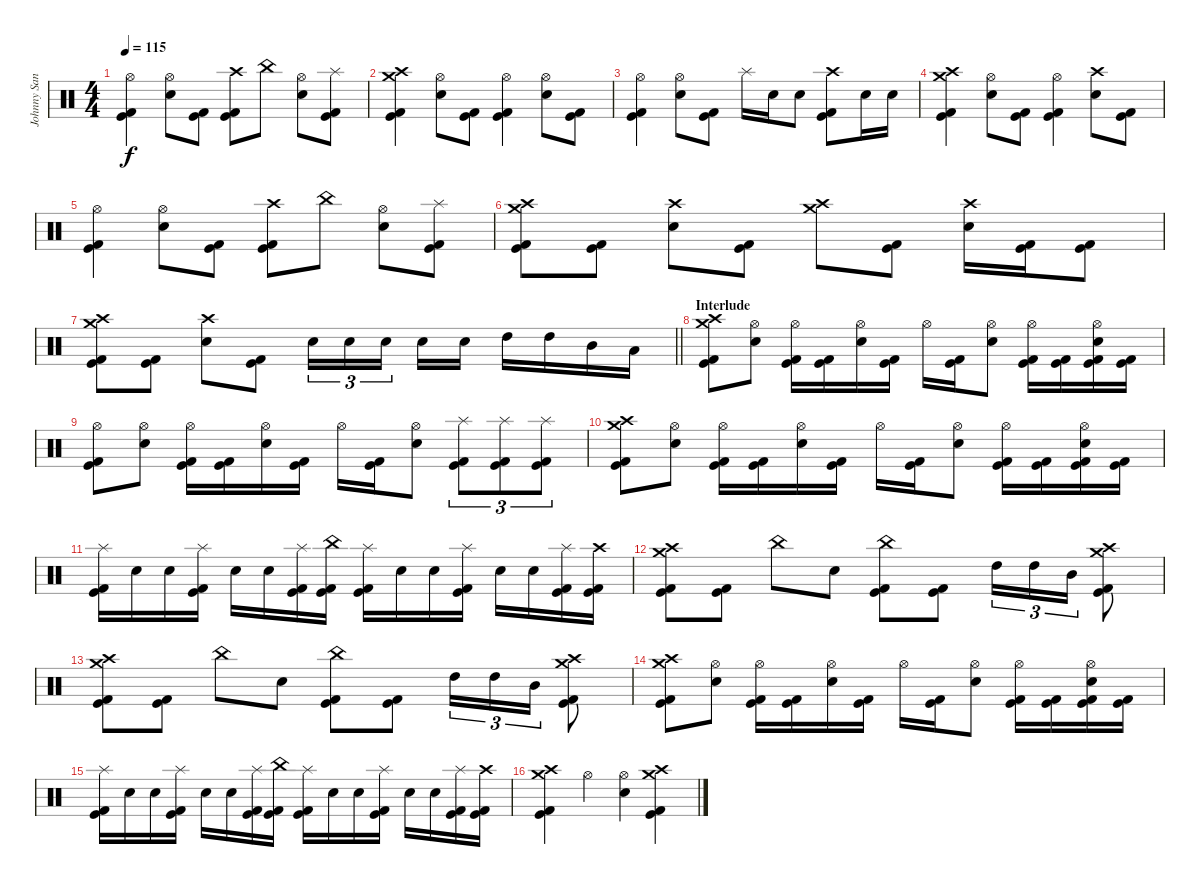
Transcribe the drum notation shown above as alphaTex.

\track ("Johnny Sandin" "Johnny San") {instrument percussion}
\staff {score}
\articulation defaults
\ts (4 4)
\tempo 115
\clef neutral
\ks c
("Hi-Hat (open)" "Kick (hit) 2" "Kick (hit)").4{dy f} ("Hi-Hat (open)" "Snare (hit) 2").8 ("Kick (hit) 2" "Kick (hit)").8 ("Crash high (hit)" "Kick (hit) 2" "Kick (hit)").8 "China (hit)".8 ("Hi-Hat (open)" "Snare (hit) 2").8 ("Splash (hit)" "Kick (hit) 2" "Kick (hit)").8 |
("Crash medium (hit)" "Crash high (hit)" "Kick (hit) 2" "Kick (hit)").4 ("Hi-Hat (open)" "Snare (hit) 2").8 ("Kick (hit) 2" "Kick (hit)").8 ("Hi-Hat (open)" "Kick (hit) 2" "Kick (hit)").4 ("Hi-Hat (open)" "Snare (hit) 2").8 ("Kick (hit) 2" "Kick (hit)").8 |
("Hi-Hat (open)" "Kick (hit) 2" "Kick (hit)").4 ("Hi-Hat (open)" "Snare (hit) 2").8 ("Kick (hit) 2" "Kick (hit)").8 "Splash (hit)".16 "Snare (hit) 2".16 "Snare (hit) 2".8 ("Crash high (hit)" "Kick (hit) 2" "Kick (hit)").8 "Snare (hit) 2".16 "Snare (hit) 2".16 |
("Crash medium (hit)" "Crash high (hit)" "Kick (hit) 2" "Kick (hit)").4 ("Hi-Hat (open)" "Snare (hit) 2").8 ("Kick (hit) 2" "Kick (hit)").8 ("Hi-Hat (open)" "Kick (hit) 2" "Kick (hit)").4 ("Crash high (hit)" "Snare (hit) 2").8 ("Kick (hit) 2" "Kick (hit)").8 |
("Hi-Hat (open)" "Kick (hit) 2" "Kick (hit)").4 ("Hi-Hat (open)" "Snare (hit) 2").8 ("Kick (hit) 2" "Kick (hit)").8 ("Crash high (hit)" "Kick (hit) 2" "Kick (hit)").8 "China (hit)".8 ("Hi-Hat (open)" "Snare (hit) 2").8 ("Splash (hit)" "Kick (hit) 2" "Kick (hit)").8 |
("Crash medium (hit)" "Crash high (hit)" "Kick (hit) 2" "Kick (hit)").8 ("Kick (hit) 2" "Kick (hit)").8 ("Crash high (hit)" "Snare (hit) 2").8 ("Kick (hit) 2" "Kick (hit)").8 ("Crash medium (hit)" "Crash high (hit)").8 ("Kick (hit) 2" "Kick (hit)").8 ("Crash high (hit)" "Snare (hit) 2").16 ("Kick (hit)" "Kick (hit) 2").16 ("Kick (hit)" "Kick (hit) 2").8 |
\barLineRight lightlight
("Crash medium (hit)" "Crash high (hit)" "Kick (hit) 2" "Kick (hit)").8 ("Kick (hit) 2" "Kick (hit)").8 ("Crash high (hit)" "Snare (hit) 2").8 ("Kick (hit) 2" "Kick (hit)").8 "Snare (hit) 2".16{tu (3 2)} "Snare (hit) 2".16{tu (3 2)} "Snare (hit) 2".16{tu (3 2)} "Snare (hit) 2".16 "Snare (hit) 2".16 "High Tom (hit)".16 "High Tom (hit)".16 "Mid Tom (hit)".16 "Low Tom (hit)".16 |
\section ("" "Interlude")
("Crash medium (hit)" "Crash high (hit)" "Kick (hit) 2" "Kick (hit)").8 ("Hi-Hat (open)" "Snare (hit) 2").8 ("Hi-Hat (open)" "Kick (hit) 2" "Kick (hit)").16 ("Kick (hit) 2" "Kick (hit)").16 ("Hi-Hat (open)" "Snare (hit) 2").16 ("Kick (hit) 2" "Kick (hit)").16 "Hi-Hat (open)".16 ("Kick (hit) 2" "Kick (hit)").16 ("Hi-Hat (open)" "Snare (hit) 2").8 ("Hi-Hat (open)" "Kick (hit) 2" "Kick (hit)").16 ("Kick (hit) 2" "Kick (hit)").16 ("Hi-Hat (open)" "Snare (hit) 2" "Kick (hit) 2" "Kick (hit)").16 ("Kick (hit) 2" "Kick (hit)").16 |
("Hi-Hat (open)" "Kick (hit) 2" "Kick (hit)").8 ("Hi-Hat (open)" "Snare (hit) 2").8 ("Hi-Hat (open)" "Kick (hit) 2" "Kick (hit)").16 ("Kick (hit) 2" "Kick (hit)").16 ("Hi-Hat (open)" "Snare (hit) 2").16 ("Kick (hit) 2" "Kick (hit)").16 "Hi-Hat (open)".16 ("Kick (hit) 2" "Kick (hit)").16 ("Hi-Hat (open)" "Snare (hit) 2").8 ("Splash (hit)" "Kick (hit) 2" "Kick (hit)").8{tu (3 2)} ("Splash (hit)" "Kick (hit) 2" "Kick (hit)").8{tu (3 2)} ("Splash (hit)" "Kick (hit) 2" "Kick (hit)").8{tu (3 2)} |
("Crash medium (hit)" "Crash high (hit)" "Kick (hit) 2" "Kick (hit)").8 ("Hi-Hat (open)" "Snare (hit) 2").8 ("Hi-Hat (open)" "Kick (hit) 2" "Kick (hit)").16 ("Kick (hit) 2" "Kick (hit)").16 ("Hi-Hat (open)" "Snare (hit) 2").16 ("Kick (hit) 2" "Kick (hit)").16 "Hi-Hat (open)".16 ("Kick (hit) 2" "Kick (hit)").16 ("Hi-Hat (open)" "Snare (hit) 2").8 ("Hi-Hat (open)" "Kick (hit) 2" "Kick (hit)").16 ("Kick (hit) 2" "Kick (hit)").16 ("Hi-Hat (open)" "Snare (hit) 2" "Kick (hit) 2" "Kick (hit)").16 ("Kick (hit) 2" "Kick (hit)").16 |
("Splash (hit)" "Kick (hit) 2" "Kick (hit)").16 "Snare (hit) 2".16 "Snare (hit) 2".16 ("Splash (hit)" "Kick (hit) 2" "Kick (hit)").16 "Snare (hit) 2".16 "Snare (hit) 2".16 ("Splash (hit)" "Kick (hit) 2" "Kick (hit)").16 ("China (hit)" "Kick (hit) 2" "Kick (hit)").16 ("Splash (hit)" "Kick (hit) 2" "Kick (hit)").16 "Snare (hit) 2".16 "Snare (hit) 2".16 ("Splash (hit)" "Kick (hit) 2" "Kick (hit)").16 "Snare (hit) 2".16 "Snare (hit) 2".16 ("Splash (hit)" "Kick (hit) 2" "Kick (hit)").16 ("Crash high (hit)" "Kick (hit) 2" "Kick (hit)").16 |
("Crash medium (hit)" "Crash high (hit)" "Kick (hit) 2" "Kick (hit)").8 ("Kick (hit) 2" "Kick (hit)").8 "China (hit)".8 "Snare (hit) 2".8 ("China (hit)" "Kick (hit) 2" "Kick (hit)").8 ("Kick (hit) 2" "Kick (hit)").8 "High Tom (hit)".16{tu (3 2)} "High Tom (hit)".16{tu (3 2)} "Mid Tom (hit)".16{tu (3 2)} ("Crash medium (hit)" "Crash high (hit)" "Kick (hit) 2" "Kick (hit)").8 |
("Crash medium (hit)" "Crash high (hit)" "Kick (hit) 2" "Kick (hit)").8 ("Kick (hit) 2" "Kick (hit)").8 "China (hit)".8 "Snare (hit) 2".8 ("China (hit)" "Kick (hit) 2" "Kick (hit)").8 ("Kick (hit) 2" "Kick (hit)").8 "High Tom (hit)".16{tu (3 2)} "High Tom (hit)".16{tu (3 2)} "Mid Tom (hit)".16{tu (3 2)} ("Crash medium (hit)" "Crash high (hit)" "Kick (hit) 2" "Kick (hit)").8 |
("Crash medium (hit)" "Crash high (hit)" "Kick (hit) 2" "Kick (hit)").8 ("Hi-Hat (open)" "Snare (hit) 2").8 ("Hi-Hat (open)" "Kick (hit) 2" "Kick (hit)").16 ("Kick (hit) 2" "Kick (hit)").16 ("Hi-Hat (open)" "Snare (hit) 2").16 ("Kick (hit) 2" "Kick (hit)").16 "Hi-Hat (open)".16 ("Kick (hit) 2" "Kick (hit)").16 ("Hi-Hat (open)" "Snare (hit) 2").8 ("Hi-Hat (open)" "Kick (hit) 2" "Kick (hit)").16 ("Kick (hit) 2" "Kick (hit)").16 ("Hi-Hat (open)" "Snare (hit) 2" "Kick (hit) 2" "Kick (hit)").16 ("Kick (hit) 2" "Kick (hit)").16 |
("Splash (hit)" "Kick (hit) 2" "Kick (hit)").16 "Snare (hit) 2".16 "Snare (hit) 2".16 ("Splash (hit)" "Kick (hit) 2" "Kick (hit)").16 "Snare (hit) 2".16 "Snare (hit) 2".16 ("Splash (hit)" "Kick (hit) 2" "Kick (hit)").16 ("China (hit)" "Kick (hit) 2" "Kick (hit)").16 ("Splash (hit)" "Kick (hit) 2" "Kick (hit)").16 "Snare (hit) 2".16 "Snare (hit) 2".16 ("Splash (hit)" "Kick (hit) 2" "Kick (hit)").16 "Snare (hit) 2".16 "Snare (hit) 2".16 ("Splash (hit)" "Kick (hit) 2" "Kick (hit)").16 ("Crash high (hit)" "Kick (hit) 2" "Kick (hit)").16 |
("Crash medium (hit)" "Crash high (hit)" "Kick (hit) 2" "Kick (hit)").4 "Hi-Hat (open)".4 ("Hi-Hat (open)" "Snare (hit) 2").4 ("Crash medium (hit)" "Crash high (hit)" "Kick (hit) 2" "Kick (hit)").4
